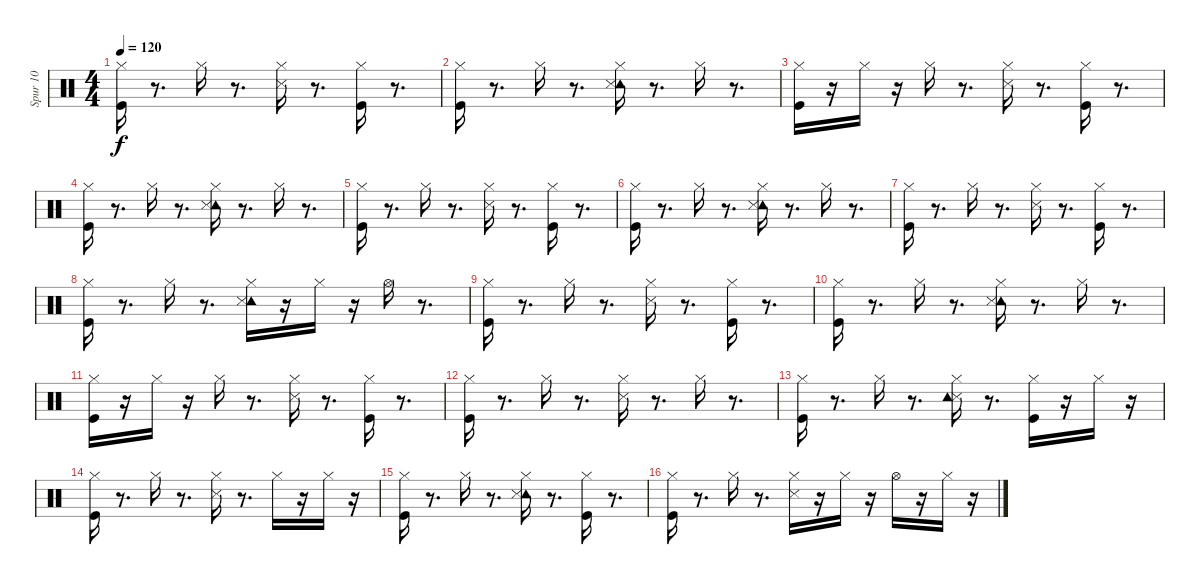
\track ("Spur 10" "Spur 10") {instrument percussion}
\staff {score}
\articulation defaults
\ts (4 4)
\tempo 120
\clef neutral
\ks c
("Kick (hit)" "Hi-Hat (closed)").16{dy f} r.8{d} "Hi-Hat (closed)".16 r.8{d} ("Snare (side stick) 3" "Hi-Hat (closed)").16 r.8{d} ("Hi-Hat (closed)" "Kick (hit)").16 r.8{d} |
("Kick (hit)" "Hi-Hat (closed)").16 r.8{d} "Hi-Hat (closed)".16 r.8{d} ("Tambourine (hit)" "Snare (side stick) 3" "Hi-Hat (closed)").16 r.8{d} "Hi-Hat (closed)".16 r.8{d} |
("Kick (hit)" "Hi-Hat (closed)").16 r.16 "Hi-Hat (closed)".16 r.16 "Hi-Hat (closed)".16 r.8{d} ("Snare (side stick) 3" "Hi-Hat (closed)").16 r.8{d} ("Kick (hit)" "Hi-Hat (closed)").16 r.8{d} |
("Kick (hit)" "Hi-Hat (closed)").16 r.8{d} "Hi-Hat (closed)".16 r.8{d} ("Tambourine (hit)" "Snare (side stick) 3" "Hi-Hat (closed)").16 r.8{d} "Hi-Hat (closed)".16 r.8{d} |
("Kick (hit)" "Hi-Hat (closed)").16 r.8{d} "Hi-Hat (closed)".16 r.8{d} ("Snare (side stick) 3" "Hi-Hat (closed)").16 r.8{d} ("Kick (hit)" "Hi-Hat (closed)").16 r.8{d} |
("Kick (hit)" "Hi-Hat (closed)").16 r.8{d} "Hi-Hat (closed)".16 r.8{d} ("Tambourine (hit)" "Snare (side stick) 3" "Hi-Hat (closed)").16 r.8{d} "Hi-Hat (closed)".16 r.8{d} |
("Kick (hit)" "Hi-Hat (closed)").16 r.8{d} "Hi-Hat (closed)".16 r.8{d} ("Snare (side stick) 3" "Hi-Hat (closed)").16 r.8{d} ("Kick (hit)" "Hi-Hat (closed)").16 r.8{d} |
("Kick (hit)" "Hi-Hat (closed)").16 r.8{d} "Hi-Hat (closed)".16 r.8{d} ("Tambourine (hit)" "Snare (side stick) 3" "Hi-Hat (closed)").16 r.16 "Hi-Hat (closed)".16 r.16 "Hi-Hat (open)".16 r.8{d} |
("Kick (hit)" "Hi-Hat (closed)").16 r.8{d} "Hi-Hat (closed)".16 r.8{d} ("Snare (side stick) 3" "Hi-Hat (closed)").16 r.8{d} ("Hi-Hat (closed)" "Kick (hit)").16 r.8{d} |
("Kick (hit)" "Hi-Hat (closed)").16 r.8{d} "Hi-Hat (closed)".16 r.8{d} ("Tambourine (hit)" "Snare (side stick) 3" "Hi-Hat (closed)").16 r.8{d} "Hi-Hat (closed)".16 r.8{d} |
("Kick (hit)" "Hi-Hat (closed)").16 r.16 "Hi-Hat (closed)".16 r.16 "Hi-Hat (closed)".16 r.8{d} ("Snare (side stick) 3" "Hi-Hat (closed)").16 r.8{d} ("Kick (hit)" "Hi-Hat (closed)").16 r.8{d} |
("Kick (hit)" "Hi-Hat (closed)").16 r.8{d} "Hi-Hat (closed)".16 r.8{d} ("Snare (side stick) 3" "Hi-Hat (closed)").16 r.8{d} "Hi-Hat (closed)".16 r.8{d} |
("Kick (hit)" "Hi-Hat (closed)").16 r.8{d} "Hi-Hat (closed)".16 r.8{d} ("Snare (side stick) 3" "Tambourine (hit)" "Hi-Hat (closed)").16 r.8{d} ("Kick (hit)" "Hi-Hat (closed)").16 r.16 "Hi-Hat (closed)".16 r.16 |
("Kick (hit)" "Hi-Hat (closed)").16 r.8{d} "Hi-Hat (closed)".16 r.8{d} ("Snare (side stick) 3" "Hi-Hat (closed)").16 r.8{d} "Hi-Hat (closed)".16 r.16 "Hi-Hat (closed)".16 r.16 |
("Kick (hit)" "Hi-Hat (closed)").16 r.8{d} "Hi-Hat (closed)".16 r.8{d} ("Tambourine (hit)" "Snare (side stick) 3" "Hi-Hat (closed)").16 r.8{d} ("Kick (hit)" "Hi-Hat (closed)").16 r.8{d} |
("Kick (hit)" "Hi-Hat (closed)").16 r.8{d} "Hi-Hat (closed)".16 r.8{d} ("Snare (side stick) 3" "Hi-Hat (closed)").16 r.16 "Hi-Hat (closed)".16 r.16 "Hi-Hat (open)".16 r.16 "Hi-Hat (closed)".16 r.16
